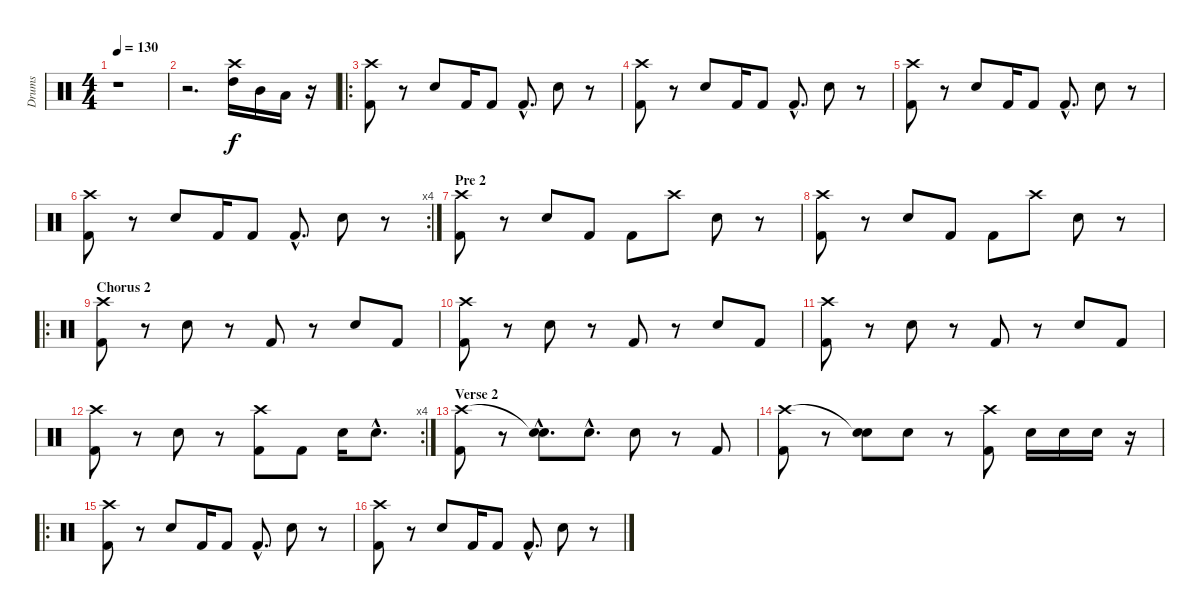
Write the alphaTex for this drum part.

\track ("Drums" "Drums") {instrument percussion}
\staff {score}
\articulation defaults
\ts (4 4)
\tempo 130
\clef neutral
\ks c
r.1{dy f} |
r.2{d} ("High Tom (hit)" "Crash high (hit)").16{volume 16} "Mid Tom (hit)".16 "Low Tom (hit)".16 r.16 |
\ro
("Kick (hit) 2" "Crash high (hit)").8 r.8 "Electric Snare (hit)".8 "Kick (hit) 2".16 "Kick (hit) 2".8 "Kick (hit) 2"{hac}.8{d} "Electric Snare (hit)".8 r.8 |
("Kick (hit) 2" "Crash high (hit)").8 r.8 "Electric Snare (hit)".8 "Kick (hit) 2".16 "Kick (hit) 2".8 "Kick (hit) 2"{hac}.8{d} "Electric Snare (hit)".8 r.8 |
("Kick (hit) 2" "Crash high (hit)").8 r.8 "Electric Snare (hit)".8 "Kick (hit) 2".16 "Kick (hit) 2".8 "Kick (hit) 2"{hac}.8{d} "Electric Snare (hit)".8 r.8 |
\rc 4
("Kick (hit) 2" "Crash high (hit)").8 r.8 "Electric Snare (hit)".8 "Kick (hit) 2".16 "Kick (hit) 2".8 "Kick (hit) 2"{hac}.8{d} "Electric Snare (hit)".8 r.8 |
\section ("" "Pre 2")
("Kick (hit) 2" "Crash high (hit)").8 r.8 "Electric Snare (hit)".8 "Kick (hit) 2".8 "Kick (hit) 2".8 "Crash high (hit)".8 "Electric Snare (hit)".8 r.8 |
("Kick (hit) 2" "Crash high (hit)").8 r.8 "Electric Snare (hit)".8 "Kick (hit) 2".8 "Kick (hit) 2".8 "Crash high (hit)".8 "Electric Snare (hit)".8 r.8 |
\ro
\section ("" "Chorus 2")
("Kick (hit) 2" "Crash high (hit)").8{volume 14} r.8 "Electric Snare (hit)".8 r.8 "Kick (hit) 2".8 r.8 "Electric Snare (hit)".8 "Kick (hit) 2".8 |
("Kick (hit) 2" "Crash high (hit)").8 r.8 "Electric Snare (hit)".8 r.8 "Kick (hit) 2".8 r.8 "Electric Snare (hit)".8 "Kick (hit) 2".8 |
("Kick (hit) 2" "Crash high (hit)").8 r.8 "Electric Snare (hit)".8 r.8 "Kick (hit) 2".8 r.8 "Electric Snare (hit)".8 "Kick (hit) 2".8 |
\rc 4
("Kick (hit) 2" "Crash high (hit)").8 r.8 "Electric Snare (hit)".8 r.8 ("Kick (hit) 2" "Crash high (hit)").8 "Kick (hit) 2".8 "Electric Snare (hit)".16 "Electric Snare (hit)"{hac}.8{d} |
\section ("" "Verse 2")
("Kick (hit) 2" "Crash high (hit)").8 r.8 ("Electric Snare (hit)"{hac} "Snare (hit)"{hac t}).8{d} "Electric Snare (hit)"{hac}.8{d} "Electric Snare (hit)".8 r.8 "Kick (hit) 2".8 |
("Kick (hit) 2" "Crash high (hit)").8 r.8 ("Electric Snare (hit)" "Snare (hit)"{t}).8 "Electric Snare (hit)".8 r.8 ("Kick (hit) 2" "Crash high (hit)").8 "Electric Snare (hit)".16 "Electric Snare (hit)".16 "Electric Snare (hit)".16 r.16 |
\ro
("Kick (hit) 2" "Crash high (hit)").8 r.8 "Electric Snare (hit)".8 "Kick (hit) 2".16 "Kick (hit) 2".8 "Kick (hit) 2"{hac}.8{d} "Electric Snare (hit)".8 r.8 |
("Kick (hit) 2" "Crash high (hit)").8 r.8 "Electric Snare (hit)".8 "Kick (hit) 2".16 "Kick (hit) 2".8 "Kick (hit) 2"{hac}.8{d} "Electric Snare (hit)".8 r.8
